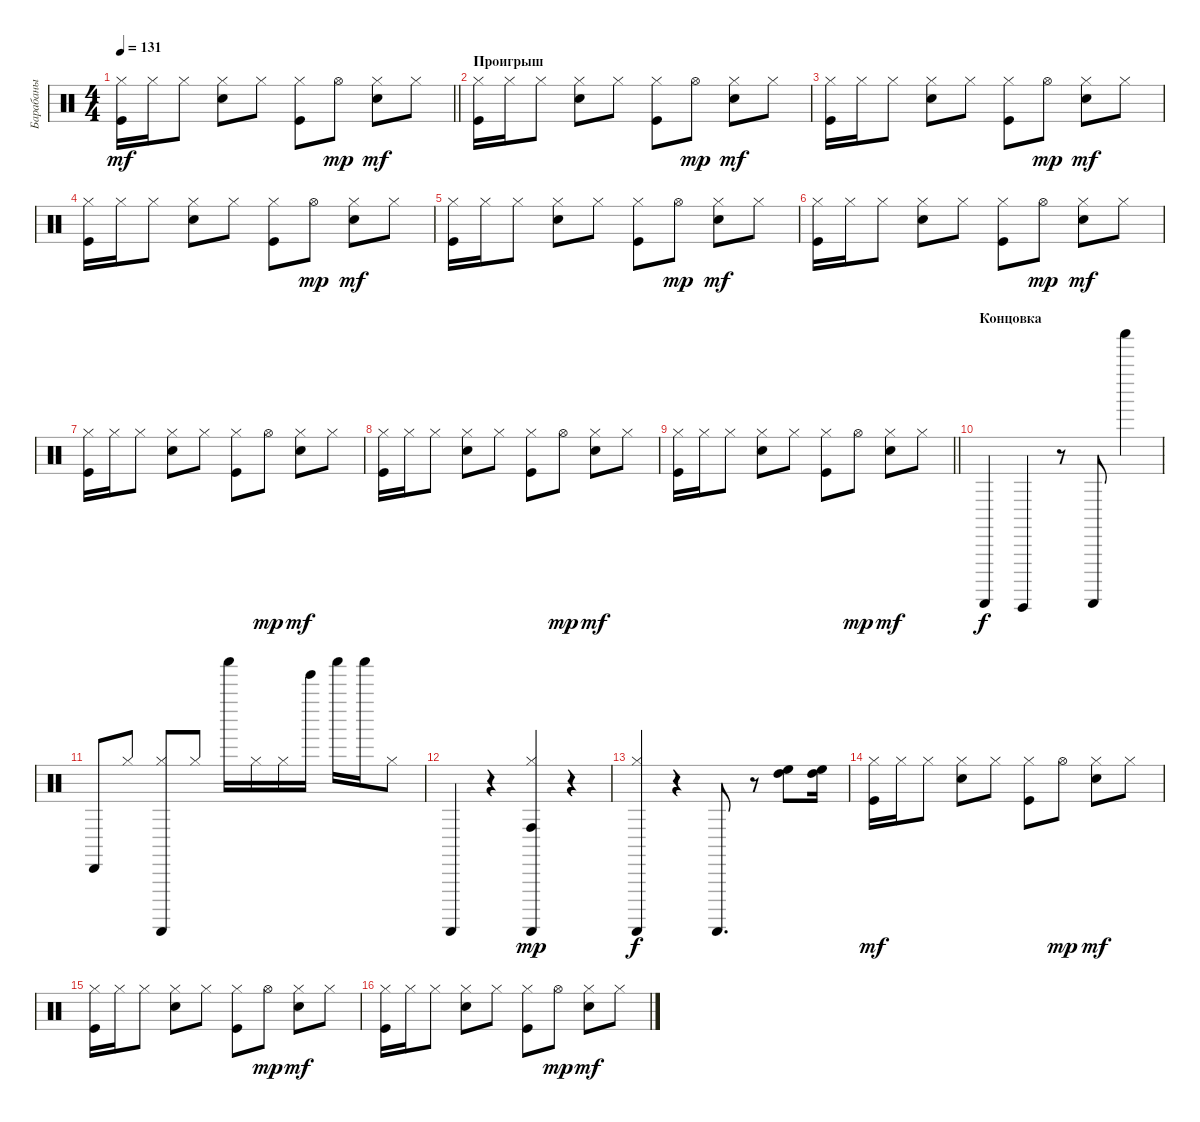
\track ("Барабаны" "Барабаны") {instrument percussion}
\staff {score}
\articulation defaults
\ts (4 4)
\tempo 131
\clef neutral
\barLineRight lightlight
\ks c
("Kick (hit)" "Hi-Hat (closed)").16{dy mf} "Hi-Hat (closed)".16 "Hi-Hat (closed)".8 ("Snare (hit) 2" "Hi-Hat (closed)").8 "Hi-Hat (closed)".8 ("Kick (hit)" "Hi-Hat (closed)").8 "Hi-Hat (open)".8{dy mp} ("Snare (hit) 2" "Hi-Hat (closed)").8{dy mf} "Hi-Hat (closed)".8 |
\section ("" "Проигрыш")
("Kick (hit)" "Hi-Hat (closed)").16 "Hi-Hat (closed)".16 "Hi-Hat (closed)".8 ("Snare (hit) 2" "Hi-Hat (closed)").8 "Hi-Hat (closed)".8 ("Kick (hit)" "Hi-Hat (closed)").8 "Hi-Hat (open)".8{dy mp} ("Snare (hit) 2" "Hi-Hat (closed)").8{dy mf} "Hi-Hat (closed)".8 |
("Kick (hit)" "Hi-Hat (closed)").16 "Hi-Hat (closed)".16 "Hi-Hat (closed)".8 ("Snare (hit) 2" "Hi-Hat (closed)").8 "Hi-Hat (closed)".8 ("Kick (hit)" "Hi-Hat (closed)").8 "Hi-Hat (open)".8{dy mp} ("Snare (hit) 2" "Hi-Hat (closed)").8{dy mf} "Hi-Hat (closed)".8 |
("Kick (hit)" "Hi-Hat (closed)").16 "Hi-Hat (closed)".16 "Hi-Hat (closed)".8 ("Snare (hit) 2" "Hi-Hat (closed)").8 "Hi-Hat (closed)".8 ("Kick (hit)" "Hi-Hat (closed)").8 "Hi-Hat (open)".8{dy mp} ("Snare (hit) 2" "Hi-Hat (closed)").8{dy mf} "Hi-Hat (closed)".8 |
("Kick (hit)" "Hi-Hat (closed)").16 "Hi-Hat (closed)".16 "Hi-Hat (closed)".8 ("Snare (hit) 2" "Hi-Hat (closed)").8 "Hi-Hat (closed)".8 ("Kick (hit)" "Hi-Hat (closed)").8 "Hi-Hat (open)".8{dy mp} ("Snare (hit) 2" "Hi-Hat (closed)").8{dy mf} "Hi-Hat (closed)".8 |
("Kick (hit)" "Hi-Hat (closed)").16 "Hi-Hat (closed)".16 "Hi-Hat (closed)".8 ("Snare (hit) 2" "Hi-Hat (closed)").8 "Hi-Hat (closed)".8 ("Kick (hit)" "Hi-Hat (closed)").8 "Hi-Hat (open)".8{dy mp} ("Snare (hit) 2" "Hi-Hat (closed)").8{dy mf} "Hi-Hat (closed)".8 |
("Kick (hit)" "Hi-Hat (closed)").16 "Hi-Hat (closed)".16 "Hi-Hat (closed)".8 ("Snare (hit) 2" "Hi-Hat (closed)").8 "Hi-Hat (closed)".8 ("Kick (hit)" "Hi-Hat (closed)").8 "Hi-Hat (open)".8{dy mp} ("Snare (hit) 2" "Hi-Hat (closed)").8{dy mf} "Hi-Hat (closed)".8 |
("Kick (hit)" "Hi-Hat (closed)").16 "Hi-Hat (closed)".16 "Hi-Hat (closed)".8 ("Snare (hit) 2" "Hi-Hat (closed)").8 "Hi-Hat (closed)".8 ("Kick (hit)" "Hi-Hat (closed)").8 "Hi-Hat (open)".8{dy mp} ("Snare (hit) 2" "Hi-Hat (closed)").8{dy mf} "Hi-Hat (closed)".8 |
\barLineRight lightlight
("Kick (hit)" "Hi-Hat (closed)").16 "Hi-Hat (closed)".16 "Hi-Hat (closed)".8 ("Snare (hit) 2" "Hi-Hat (closed)").8 "Hi-Hat (closed)".8 ("Kick (hit)" "Hi-Hat (closed)").8 "Hi-Hat (open)".8{dy mp} ("Snare (hit) 2" "Hi-Hat (closed)").8{dy mf} "Hi-Hat (closed)".8 |
\section ("" "Концовка")
"Guiro (scrap-return)".4{dy f} "Guiro (hit)".4 r.8 "Guiro (scrap-return)".8 "Shaker (hit)".4 |
"Cabasa (hit)".8 "Hi-Hat (closed)".8 ("Hi-Hat (closed)" "Guiro (scrap-return)").8 "Hi-Hat (closed)".8 "Shaker (hit)".16 "Hi-Hat (closed)".16 "Hi-Hat (closed)".16 "Tinkle Bell (hit)".16 "Shaker (hit)".16 "Shaker (hit)".16 "Hi-Hat (closed)".8 |
"Guiro (scrap-return)".4 r.4 ("Conga high (hit)" "Guiro (scrap-return)" "Hi-Hat (closed)").4{dy mp} r.4 |
("Guiro (scrap-return)" "Hi-Hat (closed)").4{dy f} r.4 "Guiro (scrap-return)".8{d} r.8 ("High Floor Tom (hit)" "High Tom (hit)").8 ("High Floor Tom (hit)" "High Tom (hit)").16 |
("Kick (hit)" "Hi-Hat (closed)").16{dy mf} "Hi-Hat (closed)".16 "Hi-Hat (closed)".8 ("Snare (hit) 2" "Hi-Hat (closed)").8 "Hi-Hat (closed)".8 ("Kick (hit)" "Hi-Hat (closed)").8 "Hi-Hat (open)".8{dy mp} ("Snare (hit) 2" "Hi-Hat (closed)").8{dy mf} "Hi-Hat (closed)".8 |
("Kick (hit)" "Hi-Hat (closed)").16 "Hi-Hat (closed)".16 "Hi-Hat (closed)".8 ("Snare (hit) 2" "Hi-Hat (closed)").8 "Hi-Hat (closed)".8 ("Kick (hit)" "Hi-Hat (closed)").8 "Hi-Hat (open)".8{dy mp} ("Snare (hit) 2" "Hi-Hat (closed)").8{dy mf} "Hi-Hat (closed)".8 |
("Kick (hit)" "Hi-Hat (closed)").16 "Hi-Hat (closed)".16 "Hi-Hat (closed)".8 ("Snare (hit) 2" "Hi-Hat (closed)").8 "Hi-Hat (closed)".8 ("Kick (hit)" "Hi-Hat (closed)").8 "Hi-Hat (open)".8{dy mp} ("Snare (hit) 2" "Hi-Hat (closed)").8{dy mf} "Hi-Hat (closed)".8
